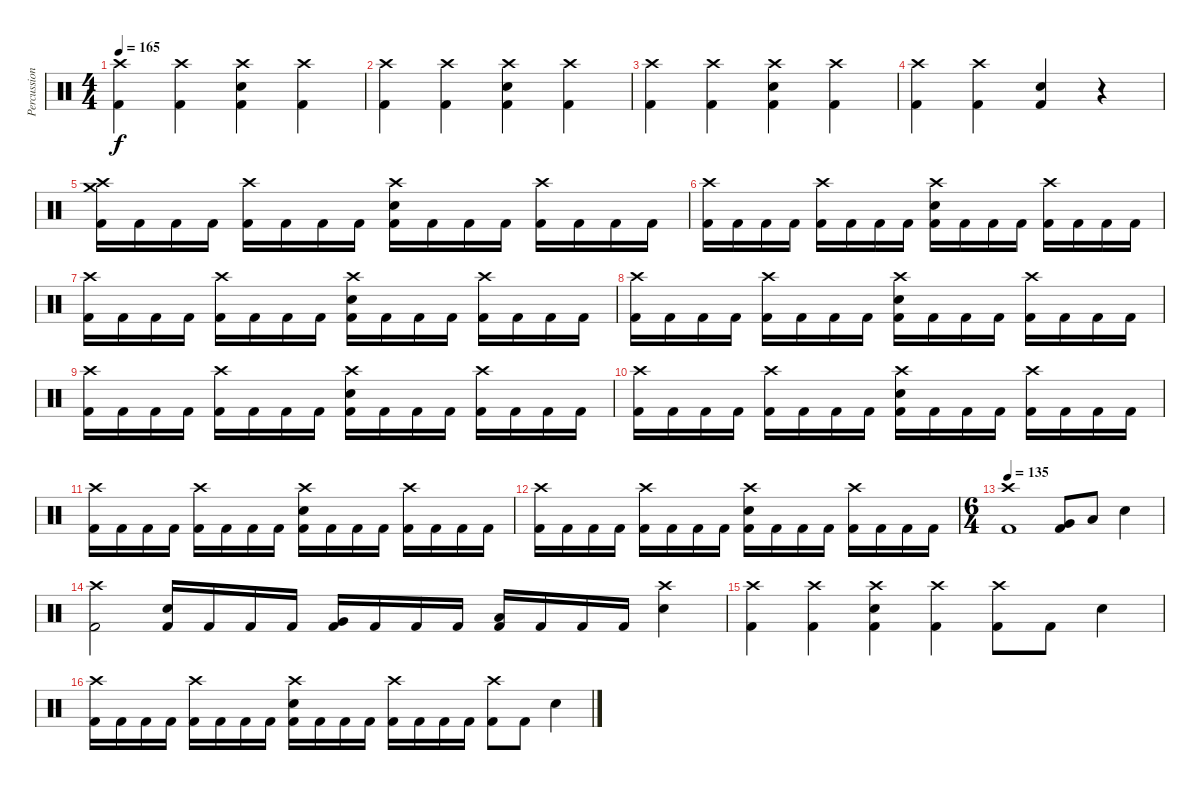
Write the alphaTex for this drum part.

\track ("Percussion" "Percussion") {instrument percussion}
\staff {score}
\articulation defaults
\ts (4 4)
\tempo 165
\clef neutral
\ks c
("Crash high (hit)" "Kick (hit) 2").4{dy f} ("Crash high (hit)" "Kick (hit) 2").4 ("Crash high (hit)" "Electric Snare (hit)" "Kick (hit) 2").4 ("Crash high (hit)" "Kick (hit) 2").4 |
("Crash high (hit)" "Kick (hit) 2").4 ("Crash high (hit)" "Kick (hit) 2").4 ("Crash high (hit)" "Electric Snare (hit)" "Kick (hit) 2").4 ("Crash high (hit)" "Kick (hit) 2").4 |
("Crash high (hit)" "Kick (hit) 2").4 ("Crash high (hit)" "Kick (hit) 2").4 ("Crash high (hit)" "Electric Snare (hit)" "Kick (hit) 2").4 ("Crash high (hit)" "Kick (hit) 2").4 |
("Crash high (hit)" "Kick (hit) 2").4 ("Crash high (hit)" "Kick (hit) 2").4 ("Electric Snare (hit)" "Kick (hit) 2").4 r.4 |
("Crash medium (hit)" "Crash high (hit)" "Kick (hit) 2").16 "Kick (hit) 2".16 "Kick (hit) 2".16 "Kick (hit) 2".16 ("Crash high (hit)" "Kick (hit) 2").16 "Kick (hit) 2".16 "Kick (hit) 2".16 "Kick (hit) 2".16 ("Crash high (hit)" "Electric Snare (hit)" "Kick (hit) 2").16 "Kick (hit) 2".16 "Kick (hit) 2".16 "Kick (hit) 2".16 ("Crash high (hit)" "Kick (hit) 2").16 "Kick (hit) 2".16 "Kick (hit) 2".16 "Kick (hit) 2".16 |
("Crash high (hit)" "Kick (hit) 2").16 "Kick (hit) 2".16 "Kick (hit) 2".16 "Kick (hit) 2".16 ("Crash high (hit)" "Kick (hit) 2").16 "Kick (hit) 2".16 "Kick (hit) 2".16 "Kick (hit) 2".16 ("Crash high (hit)" "Electric Snare (hit)" "Kick (hit) 2").16 "Kick (hit) 2".16 "Kick (hit) 2".16 "Kick (hit) 2".16 ("Crash high (hit)" "Kick (hit) 2").16 "Kick (hit) 2".16 "Kick (hit) 2".16 "Kick (hit) 2".16 |
("Crash high (hit)" "Kick (hit) 2").16 "Kick (hit) 2".16 "Kick (hit) 2".16 "Kick (hit) 2".16 ("Crash high (hit)" "Kick (hit) 2").16 "Kick (hit) 2".16 "Kick (hit) 2".16 "Kick (hit) 2".16 ("Crash high (hit)" "Electric Snare (hit)" "Kick (hit) 2").16 "Kick (hit) 2".16 "Kick (hit) 2".16 "Kick (hit) 2".16 ("Crash high (hit)" "Kick (hit) 2").16 "Kick (hit) 2".16 "Kick (hit) 2".16 "Kick (hit) 2".16 |
("Crash high (hit)" "Kick (hit) 2").16 "Kick (hit) 2".16 "Kick (hit) 2".16 "Kick (hit) 2".16 ("Crash high (hit)" "Kick (hit) 2").16 "Kick (hit) 2".16 "Kick (hit) 2".16 "Kick (hit) 2".16 ("Crash high (hit)" "Electric Snare (hit)" "Kick (hit) 2").16 "Kick (hit) 2".16 "Kick (hit) 2".16 "Kick (hit) 2".16 ("Crash high (hit)" "Kick (hit) 2").16 "Kick (hit) 2".16 "Kick (hit) 2".16 "Kick (hit) 2".16 |
("Crash high (hit)" "Kick (hit) 2").16 "Kick (hit) 2".16 "Kick (hit) 2".16 "Kick (hit) 2".16 ("Crash high (hit)" "Kick (hit) 2").16 "Kick (hit) 2".16 "Kick (hit) 2".16 "Kick (hit) 2".16 ("Crash high (hit)" "Electric Snare (hit)" "Kick (hit) 2").16 "Kick (hit) 2".16 "Kick (hit) 2".16 "Kick (hit) 2".16 ("Crash high (hit)" "Kick (hit) 2").16 "Kick (hit) 2".16 "Kick (hit) 2".16 "Kick (hit) 2".16 |
("Crash high (hit)" "Kick (hit) 2").16 "Kick (hit) 2".16 "Kick (hit) 2".16 "Kick (hit) 2".16 ("Crash high (hit)" "Kick (hit) 2").16 "Kick (hit) 2".16 "Kick (hit) 2".16 "Kick (hit) 2".16 ("Crash high (hit)" "Electric Snare (hit)" "Kick (hit) 2").16 "Kick (hit) 2".16 "Kick (hit) 2".16 "Kick (hit) 2".16 ("Crash high (hit)" "Kick (hit) 2").16 "Kick (hit) 2".16 "Kick (hit) 2".16 "Kick (hit) 2".16 |
("Crash high (hit)" "Kick (hit) 2").16 "Kick (hit) 2".16 "Kick (hit) 2".16 "Kick (hit) 2".16 ("Crash high (hit)" "Kick (hit) 2").16 "Kick (hit) 2".16 "Kick (hit) 2".16 "Kick (hit) 2".16 ("Crash high (hit)" "Electric Snare (hit)" "Kick (hit) 2").16 "Kick (hit) 2".16 "Kick (hit) 2".16 "Kick (hit) 2".16 ("Crash high (hit)" "Kick (hit) 2").16 "Kick (hit) 2".16 "Kick (hit) 2".16 "Kick (hit) 2".16 |
("Crash high (hit)" "Kick (hit) 2").16 "Kick (hit) 2".16 "Kick (hit) 2".16 "Kick (hit) 2".16 ("Crash high (hit)" "Kick (hit) 2").16 "Kick (hit) 2".16 "Kick (hit) 2".16 "Kick (hit) 2".16 ("Crash high (hit)" "Electric Snare (hit)" "Kick (hit) 2").16 "Kick (hit) 2".16 "Kick (hit) 2".16 "Kick (hit) 2".16 ("Crash high (hit)" "Kick (hit) 2").16 "Kick (hit) 2".16 "Kick (hit) 2".16 "Kick (hit) 2".16 |
\ts (6 4)
\tempo 135
("Crash high (hit)" "Kick (hit) 2").1 ("Very Low Tom (hit)" "Kick (hit) 2").8 "Low Floor Tom (hit)".8 "Electric Snare (hit)".4 |
("Crash high (hit)" "Kick (hit) 2").2 ("Electric Snare (hit)" "Kick (hit) 2").16 "Kick (hit) 2".16 "Kick (hit) 2".16 "Kick (hit) 2".16 ("Very Low Tom (hit)" "Kick (hit) 2").16 "Kick (hit) 2".16 "Kick (hit) 2".16 "Kick (hit) 2".16 ("Low Floor Tom (hit)" "Kick (hit) 2").16 "Kick (hit) 2".16 "Kick (hit) 2".16 "Kick (hit) 2".16 ("Crash high (hit)" "Electric Snare (hit)").4 |
("Crash high (hit)" "Kick (hit) 2").4 ("Crash high (hit)" "Kick (hit) 2").4 ("Crash high (hit)" "Electric Snare (hit)" "Kick (hit) 2").4 ("Crash high (hit)" "Kick (hit) 2").4 ("Crash high (hit)" "Kick (hit) 2").8 "Kick (hit) 2".8 "Electric Snare (hit)".4 |
("Crash high (hit)" "Kick (hit) 2").16 "Kick (hit) 2".16 "Kick (hit) 2".16 "Kick (hit) 2".16 ("Crash high (hit)" "Kick (hit) 2").16 "Kick (hit) 2".16 "Kick (hit) 2".16 "Kick (hit) 2".16 ("Crash high (hit)" "Electric Snare (hit)" "Kick (hit) 2").16 "Kick (hit) 2".16 "Kick (hit) 2".16 "Kick (hit) 2".16 ("Crash high (hit)" "Kick (hit) 2").16 "Kick (hit) 2".16 "Kick (hit) 2".16 "Kick (hit) 2".16 ("Crash high (hit)" "Kick (hit) 2").8 "Kick (hit) 2".8 "Electric Snare (hit)".4
